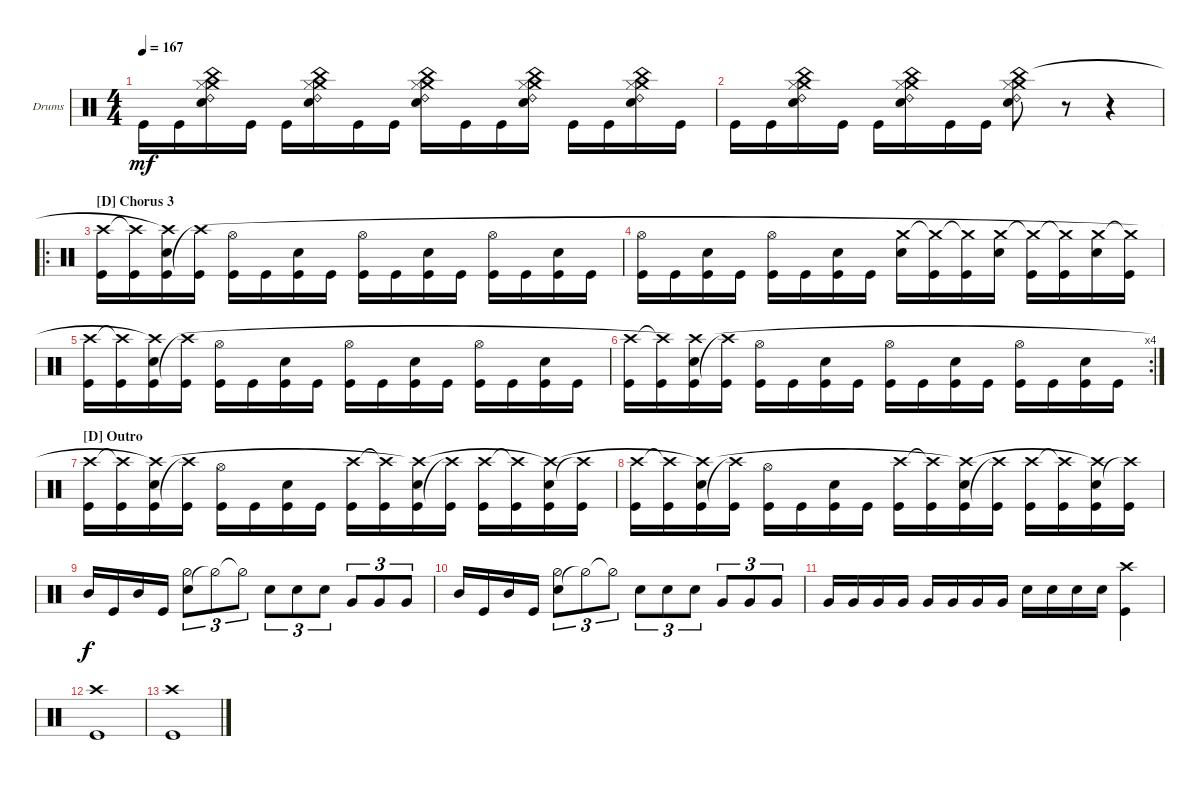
\defaultSystemsLayout 4
\bracketExtendMode groupsimilarinstruments
\firstSystemTrackNameOrientation horizontal
\otherSystemsTrackNameOrientation horizontal
\track ("Drumkit" "Drums") {instrument percussion}
\staff {score}
\articulation defaults
\ts (4 4)
\tempo 167
\clef neutral
\ks c "Kick (hit)".16{dy mf} "Kick (hit)".16
("Snare (hit) 2" "Ride (bell) 2" "China (hit)" "Crash medium (hit)" "Hi-Hat (closed)").16 "Kick (hit)".16 "Kick (hit)".16 ("Snare (hit) 2" "Ride (bell) 2" "China (hit)" "Crash medium (hit)" "Hi-Hat (closed)").16 "Kick (hit)".16 "Kick (hit)".16 ("Snare (hit) 2" "Ride (bell) 2" "China (hit)" "Crash medium (hit)" "Hi-Hat (closed)").16 "Kick (hit)".16 "Kick (hit)".16 ("Snare (hit) 2" "Ride (bell) 2" "China (hit)" "Crash medium (hit)" "Hi-Hat (closed)").16 "Kick (hit)".16 "Kick (hit)".16 ("Snare (hit) 2" "Ride (bell) 2" "China (hit)" "Crash medium (hit)" "Hi-Hat (closed)").16 "Kick (hit)".16 |
"Kick (hit)".16 "Kick (hit)".16 ("Snare (hit) 2" "Ride (bell) 2" "China (hit)" "Crash medium (hit)" "Hi-Hat (closed)").16 "Kick (hit)".16 "Kick (hit)".16 ("Snare (hit) 2" "Ride (bell) 2" "China (hit)" "Crash medium (hit)" "Hi-Hat (closed)").16 "Kick (hit)".16 "Kick (hit)".16 ("Snare (hit) 2" "Ride (bell) 2" "China (hit)" "Crash medium (hit)" "Hi-Hat (closed)").8 r.8 r.4 |
\ro
\section ("D" "Chorus 3")
("Kick (hit)" "Crash high (hit)").16 ("Kick (hit)" "Crash high (hit)"{t}).16 ("Snare (hit) 2" "Kick (hit)" "Crash high (hit)"{t}).16 ("Kick (hit)" "Crash high (hit)"{t}).16 ("Hi-Hat (open)" "Kick (hit)").16 "Kick (hit)".16 ("Kick (hit)" "Snare (hit) 2").16 "Kick (hit)".16 ("Kick (hit)" "Hi-Hat (open)").16 "Kick (hit)".16 ("Kick (hit)" "Snare (hit) 2").16 "Kick (hit)".16 ("Kick (hit)" "Hi-Hat (open)").16 "Kick (hit)".16 ("Kick (hit)" "Snare (hit) 2").16 "Kick (hit)".16 |
("Kick (hit)" "Hi-Hat (open)").16 "Kick (hit)".16 ("Snare (hit) 2" "Kick (hit)").16 "Kick (hit)".16 ("Hi-Hat (open)" "Kick (hit)").16 "Kick (hit)".16 ("Kick (hit)" "Snare (hit) 2").16 "Kick (hit)".16 ("Snare (hit) 2" "Crash medium (hit)").16 ("Kick (hit)" "Crash medium (hit)"{t}).16 ("Kick (hit)" "Crash medium (hit)"{t}).16 ("Snare (hit) 2" "Crash medium (hit)").16 ("Kick (hit)" "Crash medium (hit)"{t}).16 ("Kick (hit)" "Crash medium (hit)"{t}).16 ("Snare (hit) 2" "Crash medium (hit)").16 ("Kick (hit)" "Crash medium (hit)"{t}).16 |
("Kick (hit)" "Crash high (hit)").16 ("Kick (hit)" "Crash high (hit)"{t}).16 ("Snare (hit) 2" "Kick (hit)" "Crash high (hit)"{t}).16 ("Kick (hit)" "Crash high (hit)"{t}).16 ("Hi-Hat (open)" "Kick (hit)").16 "Kick (hit)".16 ("Kick (hit)" "Snare (hit) 2").16 "Kick (hit)".16 ("Kick (hit)" "Hi-Hat (open)").16 "Kick (hit)".16 ("Kick (hit)" "Snare (hit) 2").16 "Kick (hit)".16 ("Kick (hit)" "Hi-Hat (open)").16 "Kick (hit)".16 ("Kick (hit)" "Snare (hit) 2").16 "Kick (hit)".16 |
\rc 4
("Kick (hit)" "Crash high (hit)").16 ("Kick (hit)" "Crash high (hit)"{t}).16 ("Snare (hit) 2" "Kick (hit)" "Crash high (hit)"{t}).16 ("Kick (hit)" "Crash high (hit)"{t}).16 ("Hi-Hat (open)" "Kick (hit)").16 "Kick (hit)".16 ("Kick (hit)" "Snare (hit) 2").16 "Kick (hit)".16 ("Kick (hit)" "Hi-Hat (open)").16 "Kick (hit)".16 ("Snare (hit) 2" "Kick (hit)").16 "Kick (hit)".16 ("Kick (hit)" "Hi-Hat (open)").16 "Kick (hit)".16 ("Kick (hit)" "Snare (hit) 2").16 "Kick (hit)".16 |
\section ("D" "Outro")
("Kick (hit)" "Crash high (hit)").16 ("Kick (hit)" "Crash high (hit)"{t}).16 ("Snare (hit) 2" "Kick (hit)" "Crash high (hit)"{t}).16 ("Kick (hit)" "Crash high (hit)"{t}).16 ("Hi-Hat (open)" "Kick (hit)").16 "Kick (hit)".16 ("Kick (hit)" "Snare (hit) 2").16 "Kick (hit)".16 ("Kick (hit)" "Crash high (hit)").16 ("Kick (hit)" "Crash high (hit)"{t}).16 ("Snare (hit) 2" "Kick (hit)" "Crash high (hit)"{t}).16 ("Kick (hit)" "Crash high (hit)"{t}).16 ("Kick (hit)" "Crash high (hit)").16 ("Kick (hit)" "Crash high (hit)"{t}).16 ("Kick (hit)" "Snare (hit) 2" "Crash high (hit)"{t}).16 ("Kick (hit)" "Crash high (hit)"{t}).16 |
("Kick (hit)" "Crash high (hit)").16 ("Kick (hit)" "Crash high (hit)"{t}).16 ("Snare (hit) 2" "Kick (hit)" "Crash high (hit)"{t}).16 ("Kick (hit)" "Crash high (hit)"{t}).16 ("Hi-Hat (open)" "Kick (hit)").16 "Kick (hit)".16 ("Kick (hit)" "Snare (hit) 2").16 "Kick (hit)".16 ("Kick (hit)" "Crash high (hit)").16 ("Kick (hit)" "Crash high (hit)"{t}).16 ("Snare (hit) 2" "Kick (hit)" "Crash high (hit)"{t}).16 ("Kick (hit)" "Crash high (hit)"{t}).16 ("Kick (hit)" "Crash high (hit)").16 ("Kick (hit)" "Crash high (hit)"{t}).16 ("Kick (hit)" "Snare (hit) 2" "Crash high (hit)"{t}).16 ("Kick (hit)" "Crash high (hit)"{t}).16 |
"Mid Tom (hit)".16{dy f} "Kick (hit)".16 "Mid Tom (hit)".16 "Kick (hit)".16 ("Snare (hit) 2" "Hi-Hat (half)").8{tu (3 2)} "Hi-Hat (half)"{t}.8{tu (3 2)} "Hi-Hat (half)"{t}.8{tu (3 2)} "Snare (hit) 2".8{tu (3 2)} "Snare (hit) 2".8{tu (3 2)} "Snare (hit) 2".8{tu (3 2)} "Very Low Tom (hit)".8{tu (3 2)} "Very Low Tom (hit)".8{tu (3 2)} "Very Low Tom (hit)".8{tu (3 2)} |
"Mid Tom (hit)".16 "Kick (hit)".16 "Mid Tom (hit)".16 "Kick (hit)".16 ("Snare (hit) 2" "Hi-Hat (half)").8{tu (3 2)} "Hi-Hat (half)"{t}.8{tu (3 2)} "Hi-Hat (half)"{t}.8{tu (3 2)} "Snare (hit) 2".8{tu (3 2)} "Snare (hit) 2".8{tu (3 2)} "Snare (hit) 2".8{tu (3 2)} "Very Low Tom (hit)".8{tu (3 2)} "Very Low Tom (hit)".8{tu (3 2)} "Very Low Tom (hit)".8{tu (3 2)} |
"Very Low Tom (hit)".16 "Very Low Tom (hit)".16 "Very Low Tom (hit)".16 "Very Low Tom (hit)".16 "Very Low Tom (hit)".16 "Very Low Tom (hit)".16 "Very Low Tom (hit)".16 "Very Low Tom (hit)".16 "Snare (hit) 2".16 "Snare (hit) 2".16 "Snare (hit) 2".16 "Snare (hit) 2".16 ("Crash high (hit)" "Kick (hit)").4 |
("Kick (hit)" "Crash high (hit)").1 |
("Kick (hit)" "Crash high (hit)").1
